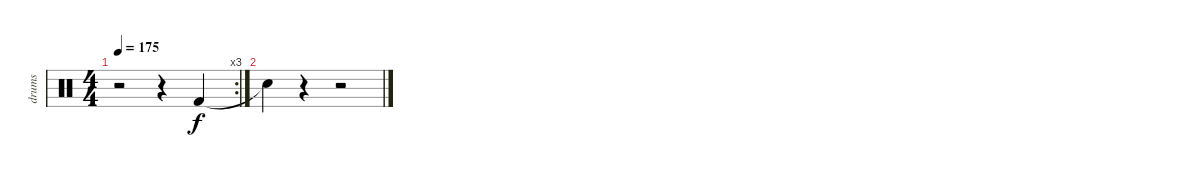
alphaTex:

\track ("drums" "drums") {instrument percussion}
\staff {score}
\articulation defaults
\rc 3
\ts (4 4)
\tempo 175
\clef neutral
\ks c
r.2{dy f} r.4 "Kick (hit) 2".4 |
"Snare (hit)"{t}.4 r.4 r.2
